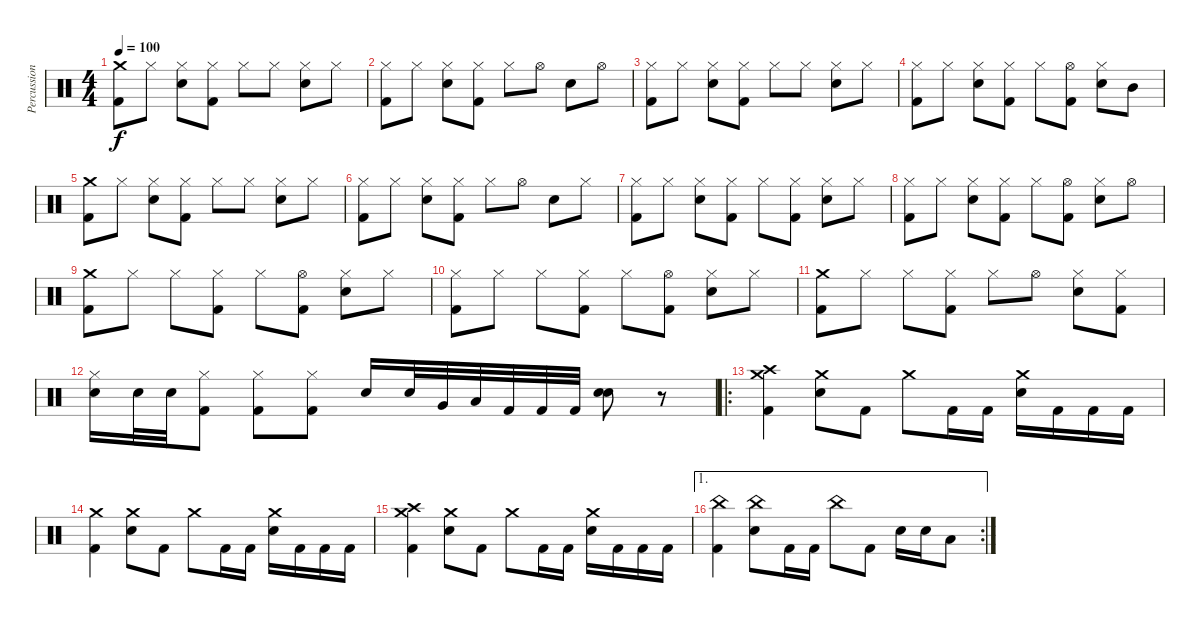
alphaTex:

\track ("Percussion" "Percussion") {instrument percussion}
\staff {score}
\articulation defaults
\ts (4 4)
\tempo 100
\clef neutral
\ks c
("Crash medium (hit)" "Kick (hit) 2").8{dy f} "Hi-Hat (closed)".8 ("Hi-Hat (closed)" "Electric Snare (hit)").8 ("Hi-Hat (closed)" "Kick (hit) 2").8 "Hi-Hat (closed)".8 "Hi-Hat (closed)".8 ("Hi-Hat (closed)" "Electric Snare (hit)").8 "Hi-Hat (closed)".8 |
("Hi-Hat (closed)" "Kick (hit) 2").8 "Hi-Hat (closed)".8 ("Hi-Hat (closed)" "Electric Snare (hit)").8 ("Hi-Hat (closed)" "Kick (hit) 2").8 "Hi-Hat (closed)".8 "Hi-Hat (open)".8 "Electric Snare (hit)".8 "Hi-Hat (open)".8 |
("Hi-Hat (closed)" "Kick (hit) 2").8 "Hi-Hat (closed)".8 ("Hi-Hat (closed)" "Electric Snare (hit)").8 ("Hi-Hat (closed)" "Kick (hit) 2").8 "Hi-Hat (closed)".8 "Hi-Hat (closed)".8 ("Hi-Hat (closed)" "Electric Snare (hit)").8 "Hi-Hat (closed)".8 |
("Hi-Hat (closed)" "Kick (hit) 2").8 "Hi-Hat (closed)".8 ("Hi-Hat (closed)" "Electric Snare (hit)").8 ("Hi-Hat (closed)" "Kick (hit) 2").8 "Hi-Hat (closed)".8 ("Hi-Hat (open)" "Kick (hit) 2").8 ("Hi-Hat (closed)" "Electric Snare (hit)").8 "Mid Tom (hit)".8 |
("Crash medium (hit)" "Kick (hit) 2").8 "Hi-Hat (closed)".8 ("Hi-Hat (closed)" "Electric Snare (hit)").8 ("Hi-Hat (closed)" "Kick (hit) 2").8 "Hi-Hat (closed)".8 "Hi-Hat (closed)".8 ("Hi-Hat (closed)" "Electric Snare (hit)").8 "Hi-Hat (closed)".8 |
("Hi-Hat (closed)" "Kick (hit) 2").8 "Hi-Hat (closed)".8 ("Hi-Hat (closed)" "Electric Snare (hit)").8 ("Hi-Hat (closed)" "Kick (hit) 2").8 "Hi-Hat (closed)".8 "Hi-Hat (open)".8 "Electric Snare (hit)".8 "Hi-Hat (closed)".8 |
("Hi-Hat (closed)" "Kick (hit) 2").8 "Hi-Hat (closed)".8 ("Hi-Hat (closed)" "Electric Snare (hit)").8 ("Hi-Hat (closed)" "Kick (hit) 2").8 "Hi-Hat (closed)".8 ("Hi-Hat (closed)" "Kick (hit) 2").8 ("Hi-Hat (closed)" "Electric Snare (hit)").8 "Hi-Hat (closed)".8 |
("Hi-Hat (closed)" "Kick (hit) 2").8 "Hi-Hat (closed)".8 ("Hi-Hat (closed)" "Electric Snare (hit)").8 ("Hi-Hat (closed)" "Kick (hit) 2").8 "Hi-Hat (closed)".8 ("Hi-Hat (open)" "Kick (hit) 2").8 ("Hi-Hat (closed)" "Electric Snare (hit)").8 "Hi-Hat (open)".8 |
("Crash medium (hit)" "Kick (hit) 2").8 "Hi-Hat (closed)".8 "Hi-Hat (closed)".8 ("Hi-Hat (closed)" "Kick (hit) 2").8 "Hi-Hat (closed)".8 ("Hi-Hat (open)" "Kick (hit) 2").8 ("Hi-Hat (closed)" "Electric Snare (hit)").8 "Hi-Hat (closed)".8 |
("Hi-Hat (closed)" "Kick (hit) 2").8 "Hi-Hat (closed)".8 "Hi-Hat (closed)".8 ("Hi-Hat (closed)" "Kick (hit) 2").8 "Hi-Hat (closed)".8 ("Hi-Hat (open)" "Kick (hit) 2").8 ("Hi-Hat (closed)" "Electric Snare (hit)").8 "Hi-Hat (closed)".8 |
("Crash medium (hit)" "Kick (hit) 2").8 "Hi-Hat (closed)".8 "Hi-Hat (closed)".8 ("Hi-Hat (closed)" "Kick (hit) 2").8 "Hi-Hat (closed)".8 "Hi-Hat (open)".8 ("Hi-Hat (closed)" "Electric Snare (hit)").8 ("Hi-Hat (closed)" "Kick (hit) 2").8 |
("Hi-Hat (closed)" "Electric Snare (hit)").16 "Electric Snare (hit)".32 "Electric Snare (hit)".32 ("Hi-Hat (closed)" "Kick (hit) 2").8 ("Hi-Hat (closed)" "Kick (hit) 2").8 ("Hi-Hat (closed)" "Kick (hit) 2").8 "Electric Snare (hit)".16 "Electric Snare (hit)".32 "Very Low Tom (hit)".32 "Low Floor Tom (hit)".32 "Kick (hit) 2".32 "Kick (hit) 2".32 "Kick (hit) 2".32 ("Electric Snare (hit)" "Electric Snare (hit)").8{bd 60} r.8 |
\ro
("Crash medium (hit)" "Crash high (hit)" "Kick (hit) 2").4 ("Crash medium (hit)" "Electric Snare (hit)").8 "Kick (hit) 2".8 "Crash medium (hit)".8 "Kick (hit) 2".16 "Kick (hit) 2".16 ("Crash medium (hit)" "Electric Snare (hit)").16 "Kick (hit) 2".16 "Kick (hit) 2".16 "Kick (hit) 2".16 |
("Crash medium (hit)" "Kick (hit) 2").4 ("Crash medium (hit)" "Electric Snare (hit)").8 "Kick (hit) 2".8 "Crash medium (hit)".8 "Kick (hit) 2".16 "Kick (hit) 2".16 ("Crash medium (hit)" "Electric Snare (hit)").16 "Kick (hit) 2".16 "Kick (hit) 2".16 "Kick (hit) 2".16 |
("Crash medium (hit)" "Crash high (hit)" "Kick (hit) 2").4 ("Crash medium (hit)" "Electric Snare (hit)").8 "Kick (hit) 2".8 "Crash medium (hit)".8 "Kick (hit) 2".16 "Kick (hit) 2".16 ("Crash medium (hit)" "Electric Snare (hit)").16 "Kick (hit) 2".16 "Kick (hit) 2".16 "Kick (hit) 2".16 |
\ae 1
\rc 2
("China (hit)" "Kick (hit) 2").4 ("China (hit)" "Electric Snare (hit)").8 "Kick (hit) 2".16 "Kick (hit) 2".16 "China (hit)".8 "Kick (hit) 2".8 "Electric Snare (hit)".16 "Electric Snare (hit)".16 "Low Floor Tom (hit)".8
